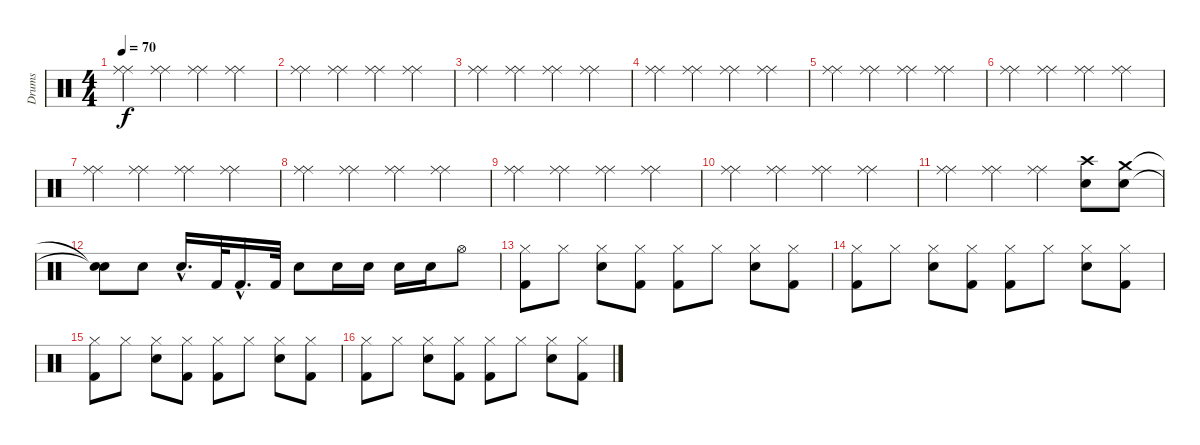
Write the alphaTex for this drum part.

\track ("Drums" "Drums") {instrument percussion}
\staff {score}
\articulation defaults
\ts (4 4)
\tempo 70
\clef neutral
\ks c
("Ride (middle)" "Ride (middle)").4{dy f} ("Ride (middle)" "Ride (middle)").4 ("Ride (middle)" "Ride (middle)").4 ("Ride (middle)" "Ride (middle)").4 |
("Ride (middle)" "Ride (middle)").4 ("Ride (middle)" "Ride (middle)").4 ("Ride (middle)" "Ride (middle)").4 ("Ride (middle)" "Ride (middle)").4 |
("Ride (middle)" "Ride (middle)").4 ("Ride (middle)" "Ride (middle)").4 ("Ride (middle)" "Ride (middle)").4 ("Ride (middle)" "Ride (middle)").4 |
("Ride (middle)" "Ride (middle)").4 ("Ride (middle)" "Ride (middle)").4 ("Ride (middle)" "Ride (middle)").4 ("Ride (middle)" "Ride (middle)").4 |
("Ride (middle)" "Ride (middle)").4 ("Ride (middle)" "Ride (middle)").4 ("Ride (middle)" "Ride (middle)").4 ("Ride (middle)" "Ride (middle)").4 |
("Ride (middle)" "Ride (middle)").4 ("Ride (middle)" "Ride (middle)").4 ("Ride (middle)" "Ride (middle)").4 ("Ride (middle)" "Ride (middle)").4 |
("Ride (middle)" "Ride (middle)").4 ("Ride (middle)" "Ride (middle)").4 ("Ride (middle)" "Ride (middle)").4 ("Ride (middle)" "Ride (middle)").4 |
("Ride (middle)" "Ride (middle)").4 ("Ride (middle)" "Ride (middle)").4 ("Ride (middle)" "Ride (middle)").4 ("Ride (middle)" "Ride (middle)").4 |
("Ride (middle)" "Ride (middle)").4 ("Ride (middle)" "Ride (middle)").4 ("Ride (middle)" "Ride (middle)").4 ("Ride (middle)" "Ride (middle)").4 |
("Ride (middle)" "Ride (middle)").4 ("Ride (middle)" "Ride (middle)").4 ("Ride (middle)" "Ride (middle)").4 ("Ride (middle)" "Ride (middle)").4 |
("Ride (middle)" "Ride (middle)").4 ("Ride (middle)" "Ride (middle)").4 ("Ride (middle)" "Ride (middle)").4 ("Crash high (hit)" "Electric Snare (hit)").8 ("Crash medium (hit)" "Electric Snare (hit)").8 |
("Snare (hit)"{t} "Snare (hit)"{t}).8 "Electric Snare (hit)".8 "Electric Snare (hit)"{hac}.16{d} "Kick (hit) 2".32 "Kick (hit) 2"{hac}.16{d} "Kick (hit) 2".32 "Electric Snare (hit)".8 "Electric Snare (hit)".16 "Electric Snare (hit)".16 "Electric Snare (hit)".16 "Electric Snare (hit)".16 "Hi-Hat (open)".8 |
("Hi-Hat (closed)" "Kick (hit) 2").8 "Hi-Hat (closed)".8 ("Hi-Hat (closed)" "Electric Snare (hit)").8 ("Hi-Hat (closed)" "Kick (hit) 2").8 ("Hi-Hat (closed)" "Kick (hit) 2").8 "Hi-Hat (closed)".8 ("Hi-Hat (closed)" "Electric Snare (hit)").8 ("Hi-Hat (closed)" "Kick (hit) 2").8 |
("Hi-Hat (closed)" "Kick (hit) 2").8 "Hi-Hat (closed)".8 ("Hi-Hat (closed)" "Electric Snare (hit)").8 ("Hi-Hat (closed)" "Kick (hit) 2").8 ("Hi-Hat (closed)" "Kick (hit) 2").8 "Hi-Hat (closed)".8 ("Hi-Hat (closed)" "Electric Snare (hit)").8 ("Hi-Hat (closed)" "Kick (hit) 2").8 |
("Hi-Hat (closed)" "Kick (hit) 2").8 "Hi-Hat (closed)".8 ("Hi-Hat (closed)" "Electric Snare (hit)").8 ("Hi-Hat (closed)" "Kick (hit) 2").8 ("Hi-Hat (closed)" "Kick (hit) 2").8 "Hi-Hat (closed)".8 ("Hi-Hat (closed)" "Electric Snare (hit)").8 ("Hi-Hat (closed)" "Kick (hit) 2").8 |
("Hi-Hat (closed)" "Kick (hit) 2").8 "Hi-Hat (closed)".8 ("Hi-Hat (closed)" "Electric Snare (hit)").8 ("Hi-Hat (closed)" "Kick (hit) 2").8 ("Hi-Hat (closed)" "Kick (hit) 2").8 "Hi-Hat (closed)".8 ("Hi-Hat (closed)" "Electric Snare (hit)").8 ("Hi-Hat (closed)" "Kick (hit) 2").8
